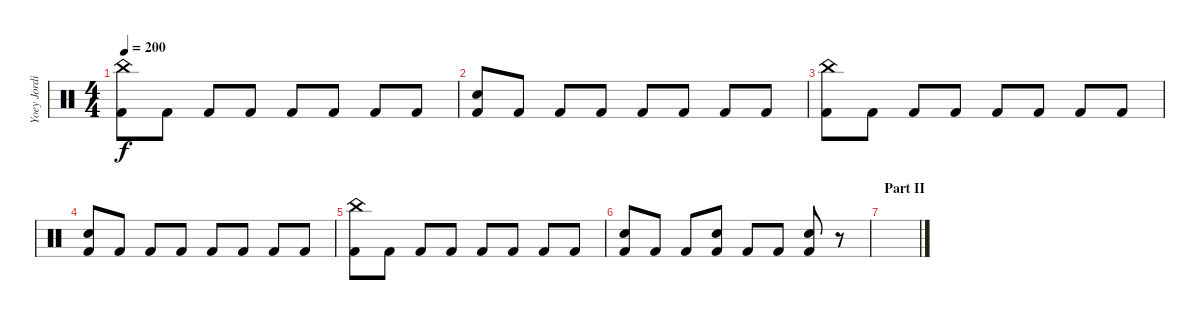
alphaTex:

\track ("Yoey Jordison" "Yoey Jordi") {instrument percussion}
\staff {score}
\articulation defaults
\ts (4 4)
\tempo 200
\clef neutral
\ks c
("Kick (hit) 2" "China (hit)").8{dy f} "Kick (hit) 2".8 "Kick (hit) 2".8 "Kick (hit) 2".8 "Kick (hit) 2".8 "Kick (hit) 2".8 "Kick (hit) 2".8 "Kick (hit) 2".8 |
("Kick (hit) 2" "Snare (hit) 2").8 "Kick (hit) 2".8 "Kick (hit) 2".8 "Kick (hit) 2".8 "Kick (hit) 2".8 "Kick (hit) 2".8 "Kick (hit) 2".8 "Kick (hit) 2".8 |
("Kick (hit) 2" "China (hit)").8 "Kick (hit) 2".8 "Kick (hit) 2".8 "Kick (hit) 2".8 "Kick (hit) 2".8 "Kick (hit) 2".8 "Kick (hit) 2".8 "Kick (hit) 2".8 |
("Kick (hit) 2" "Snare (hit) 2").8 "Kick (hit) 2".8 "Kick (hit) 2".8 "Kick (hit) 2".8 "Kick (hit) 2".8 "Kick (hit) 2".8 "Kick (hit) 2".8 "Kick (hit) 2".8 |
("Kick (hit) 2" "China (hit)").8 "Kick (hit) 2".8 "Kick (hit) 2".8 "Kick (hit) 2".8 "Kick (hit) 2".8 "Kick (hit) 2".8 "Kick (hit) 2".8 "Kick (hit) 2".8 |
("Kick (hit) 2" "Snare (hit) 2").8 "Kick (hit) 2".8 "Kick (hit) 2".8 ("Kick (hit) 2" "Snare (hit) 2").8 "Kick (hit) 2".8 "Kick (hit) 2".8 ("Kick (hit) 2" "Snare (hit) 2").8 r.8 |
\section ("" "Part II")
